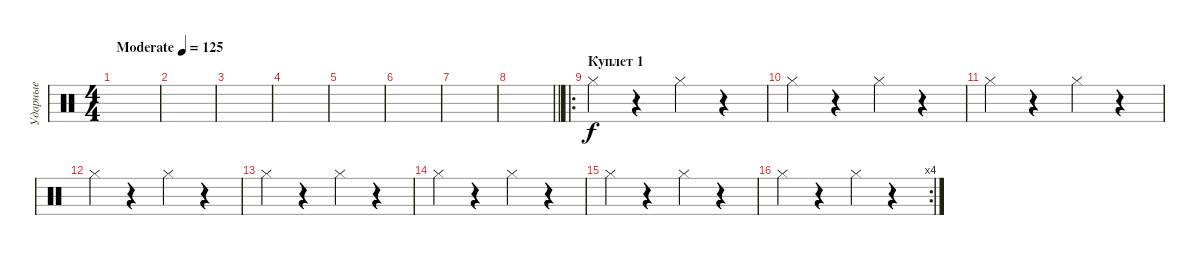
\track ("Ударные" "Ударные") {instrument percussion}
\staff {score}
\articulation defaults
\ts (4 4)
\tempo (125 "Moderate")
\clef neutral
\ks c
|
|
|
|
|
|
|
\barLineRight lightlight
|
\ro
\section ("" "Куплет 1")
"Hi-Hat (closed)".4 r.4 "Hi-Hat (closed)".4 r.4 |
"Hi-Hat (closed)".4 r.4 "Hi-Hat (closed)".4 r.4 |
"Hi-Hat (closed)".4 r.4 "Hi-Hat (closed)".4 r.4 |
"Hi-Hat (closed)".4 r.4 "Hi-Hat (closed)".4 r.4 |
"Hi-Hat (closed)".4 r.4 "Hi-Hat (closed)".4 r.4 |
"Hi-Hat (closed)".4 r.4 "Hi-Hat (closed)".4 r.4 |
"Hi-Hat (closed)".4 r.4 "Hi-Hat (closed)".4 r.4 |
\rc 4 "Hi-Hat (closed)".4
r.4 "Hi-Hat (closed)".4 r.4
